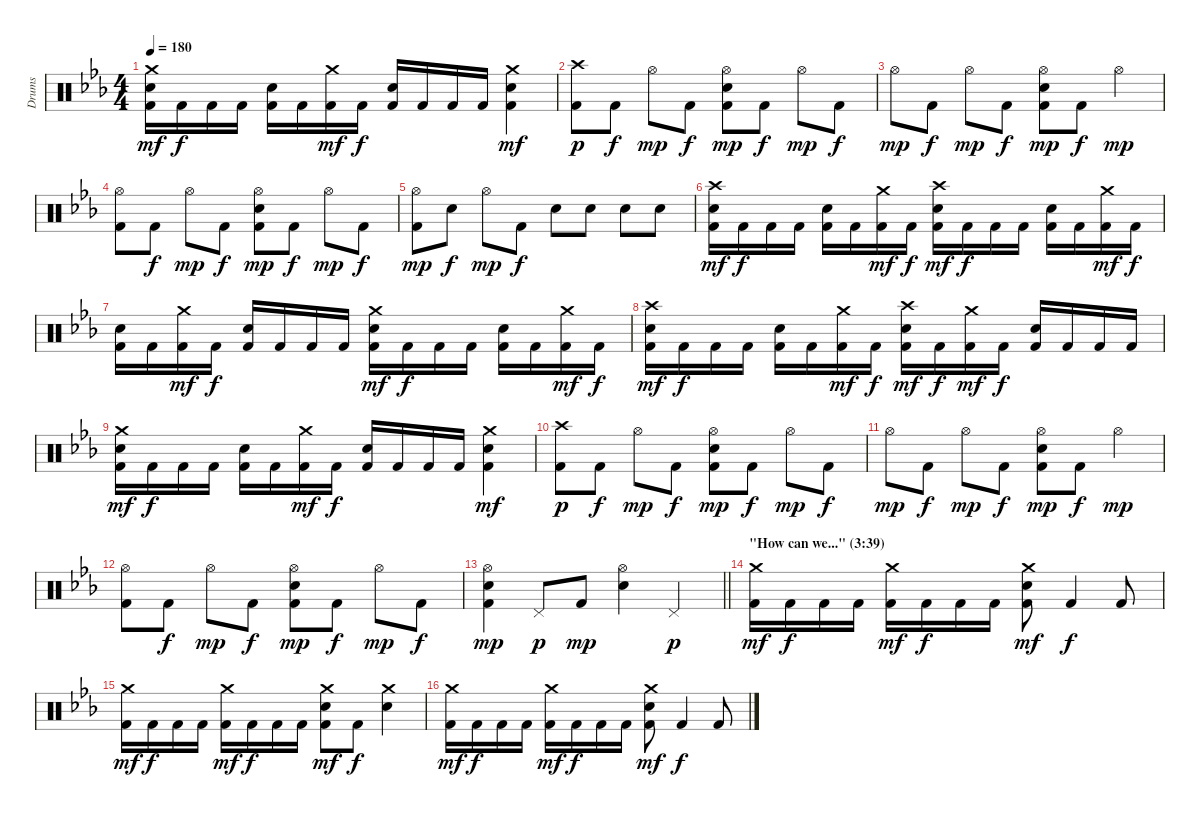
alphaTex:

\track ("Drums" "Drums") {instrument percussion}
\staff {score}
\articulation defaults
\ts (4 4)
\tempo 180
\clef neutral
\ks eb
("Crash medium (hit)" "Electric Snare (hit)" "Kick (hit) 2").16{dy mf} "Kick (hit) 2".16{dy f} "Kick (hit) 2".16 "Kick (hit) 2".16 ("Electric Snare (hit)" "Kick (hit) 2").16 "Kick (hit) 2".16 ("Crash medium (hit)" "Kick (hit) 2").16{dy mf} "Kick (hit) 2".16{dy f} ("Electric Snare (hit)" "Kick (hit) 2").16 "Kick (hit) 2".16 "Kick (hit) 2".16 "Kick (hit) 2".16 ("Crash medium (hit)" "Electric Snare (hit)" "Kick (hit) 2").4{dy mf} |
("Crash high (hit)" "Kick (hit) 2").8{dy p} "Kick (hit) 2".8{dy f} "Hi-Hat (open)".8{dy mp} "Kick (hit) 2".8{dy f} ("Hi-Hat (open)" "Electric Snare (hit)" "Kick (hit) 2").8{dy mp} "Kick (hit) 2".8{dy f} "Hi-Hat (open)".8{dy mp} "Kick (hit) 2".8{dy f} |
"Hi-Hat (open)".8{dy mp} "Kick (hit) 2".8{dy f} "Hi-Hat (open)".8{dy mp} "Kick (hit) 2".8{dy f} ("Hi-Hat (open)" "Electric Snare (hit)" "Kick (hit) 2").8{dy mp} "Kick (hit) 2".8{dy f} "Hi-Hat (open)".4{dy mp} |
("Hi-Hat (open)" "Kick (hit) 2").8 "Kick (hit) 2".8{dy f} "Hi-Hat (open)".8{dy mp} "Kick (hit) 2".8{dy f} ("Hi-Hat (open)" "Electric Snare (hit)" "Kick (hit) 2").8{dy mp} "Kick (hit) 2".8{dy f} "Hi-Hat (open)".8{dy mp} "Kick (hit) 2".8{dy f} |
("Hi-Hat (open)" "Kick (hit) 2").8{dy mp} "Electric Snare (hit)".8{dy f} "Hi-Hat (open)".8{dy mp} "Kick (hit) 2".8{dy f} "Electric Snare (hit)".8 "Electric Snare (hit)".8 "Electric Snare (hit)".8 "Electric Snare (hit)".8 |
("Crash high (hit)" "Electric Snare (hit)" "Kick (hit) 2").16{dy mf} "Kick (hit) 2".16{dy f} "Kick (hit) 2".16 "Kick (hit) 2".16 ("Electric Snare (hit)" "Kick (hit) 2").16 "Kick (hit) 2".16 ("Crash medium (hit)" "Kick (hit) 2").16{dy mf} "Kick (hit) 2".16{dy f} ("Crash high (hit)" "Electric Snare (hit)" "Kick (hit) 2").16{dy mf} "Kick (hit) 2".16{dy f} "Kick (hit) 2".16 "Kick (hit) 2".16 ("Electric Snare (hit)" "Kick (hit) 2").16 "Kick (hit) 2".16 ("Crash medium (hit)" "Kick (hit) 2").16{dy mf} "Kick (hit) 2".16{dy f} |
("Electric Snare (hit)" "Kick (hit) 2").16 "Kick (hit) 2".16 ("Crash medium (hit)" "Kick (hit) 2").16{dy mf} "Kick (hit) 2".16{dy f} ("Electric Snare (hit)" "Kick (hit) 2").16 "Kick (hit) 2".16 "Kick (hit) 2".16 "Kick (hit) 2".16 ("Crash medium (hit)" "Electric Snare (hit)" "Kick (hit) 2").16{dy mf} "Kick (hit) 2".16{dy f} "Kick (hit) 2".16 "Kick (hit) 2".16 ("Electric Snare (hit)" "Kick (hit) 2").16 "Kick (hit) 2".16 ("Crash medium (hit)" "Kick (hit) 2").16{dy mf} "Kick (hit) 2".16{dy f} |
("Crash high (hit)" "Electric Snare (hit)" "Kick (hit) 2").16{dy mf} "Kick (hit) 2".16{dy f} "Kick (hit) 2".16 "Kick (hit) 2".16 ("Electric Snare (hit)" "Kick (hit) 2").16 "Kick (hit) 2".16 ("Crash medium (hit)" "Kick (hit) 2").16{dy mf} "Kick (hit) 2".16{dy f} ("Crash high (hit)" "Electric Snare (hit)" "Kick (hit) 2").16{dy mf} "Kick (hit) 2".16{dy f} ("Crash medium (hit)" "Kick (hit) 2").16{dy mf} "Kick (hit) 2".16{dy f} ("Electric Snare (hit)" "Kick (hit) 2").16 "Kick (hit) 2".16 "Kick (hit) 2".16 "Kick (hit) 2".16 |
("Crash medium (hit)" "Electric Snare (hit)" "Kick (hit) 2").16{dy mf} "Kick (hit) 2".16{dy f} "Kick (hit) 2".16 "Kick (hit) 2".16 ("Electric Snare (hit)" "Kick (hit) 2").16 "Kick (hit) 2".16 ("Crash medium (hit)" "Kick (hit) 2").16{dy mf} "Kick (hit) 2".16{dy f} ("Electric Snare (hit)" "Kick (hit) 2").16 "Kick (hit) 2".16 "Kick (hit) 2".16 "Kick (hit) 2".16 ("Crash medium (hit)" "Electric Snare (hit)" "Kick (hit) 2").4{dy mf} |
("Crash high (hit)" "Kick (hit) 2").8{dy p} "Kick (hit) 2".8{dy f} "Hi-Hat (open)".8{dy mp} "Kick (hit) 2".8{dy f} ("Hi-Hat (open)" "Electric Snare (hit)" "Kick (hit) 2").8{dy mp} "Kick (hit) 2".8{dy f} "Hi-Hat (open)".8{dy mp} "Kick (hit) 2".8{dy f} |
"Hi-Hat (open)".8{dy mp} "Kick (hit) 2".8{dy f} "Hi-Hat (open)".8{dy mp} "Kick (hit) 2".8{dy f} ("Hi-Hat (open)" "Electric Snare (hit)" "Kick (hit) 2").8{dy mp} "Kick (hit) 2".8{dy f} "Hi-Hat (open)".4{dy mp} |
("Hi-Hat (open)" "Kick (hit) 2").8 "Kick (hit) 2".8{dy f} "Hi-Hat (open)".8{dy mp} "Kick (hit) 2".8{dy f} ("Hi-Hat (open)" "Electric Snare (hit)" "Kick (hit) 2").8{dy mp} "Kick (hit) 2".8{dy f} "Hi-Hat (open)".8{dy mp} "Kick (hit) 2".8{dy f} |
\barLineRight lightlight
("Hi-Hat (open)" "Electric Snare (hit)" "Kick (hit) 2").4{dy mp} "Pedal Hi-Hat (hit)".8{dy p} "Kick (hit) 2".8{dy mp} ("Hi-Hat (open)" "Electric Snare (hit)").4 "Pedal Hi-Hat (hit)".4{dy p} |
\section ("" "\"How can we...\" (3:39)")
("Crash medium (hit)" "Kick (hit) 2").16{dy mf} "Kick (hit) 2".16{dy f} "Kick (hit) 2".16 "Kick (hit) 2".16 ("Crash medium (hit)" "Kick (hit) 2").16{dy mf} "Kick (hit) 2".16{dy f} "Kick (hit) 2".16 "Kick (hit) 2".16 ("Crash medium (hit)" "Electric Snare (hit)" "Kick (hit) 2").8{dy mf} "Kick (hit) 2".4{dy f} "Kick (hit) 2".8 |
("Crash medium (hit)" "Kick (hit) 2").16{dy mf} "Kick (hit) 2".16{dy f} "Kick (hit) 2".16 "Kick (hit) 2".16 ("Crash medium (hit)" "Kick (hit) 2").16{dy mf} "Kick (hit) 2".16{dy f} "Kick (hit) 2".16 "Kick (hit) 2".16 ("Crash medium (hit)" "Electric Snare (hit)" "Kick (hit) 2").8{dy mf} "Kick (hit) 2".8{dy f} ("Crash medium (hit)" "Electric Snare (hit)").4 |
("Crash medium (hit)" "Kick (hit) 2").16{dy mf} "Kick (hit) 2".16{dy f} "Kick (hit) 2".16 "Kick (hit) 2".16 ("Crash medium (hit)" "Kick (hit) 2").16{dy mf} "Kick (hit) 2".16{dy f} "Kick (hit) 2".16 "Kick (hit) 2".16 ("Crash medium (hit)" "Electric Snare (hit)" "Kick (hit) 2").8{dy mf} "Kick (hit) 2".4{dy f} "Kick (hit) 2".8
